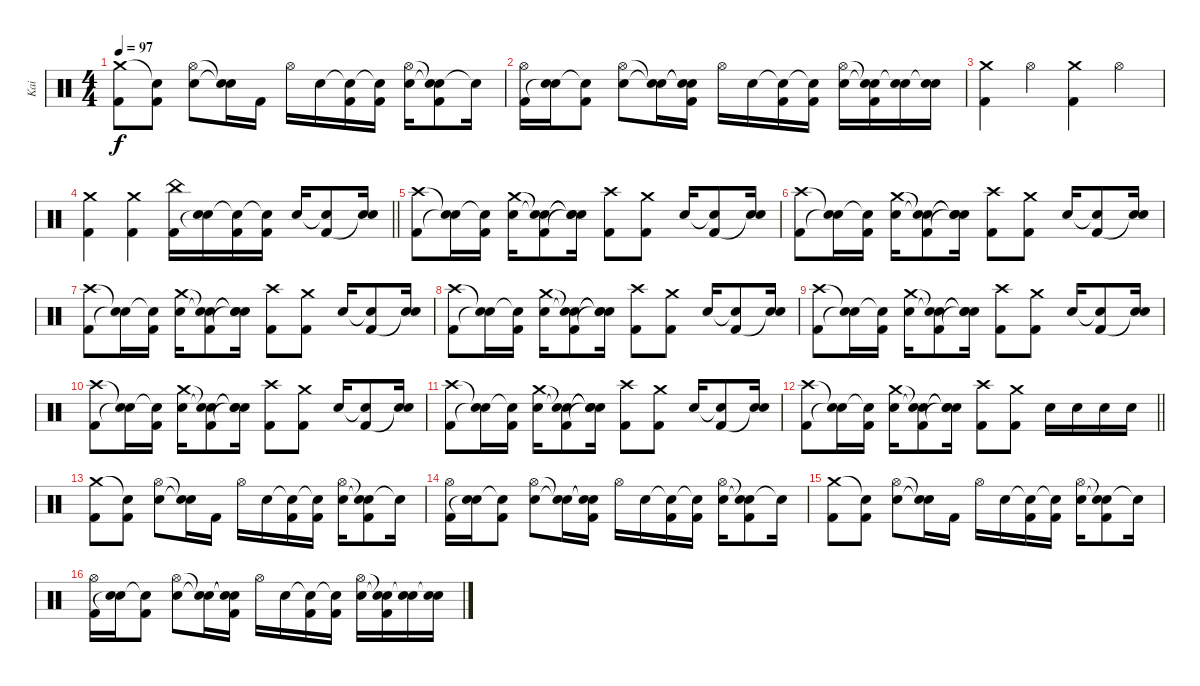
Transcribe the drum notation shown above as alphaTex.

\track ("Kai" "Kai") {instrument percussion}
\staff {score}
\articulation defaults
\ts (4 4)
\tempo 97
\clef neutral
\ks c
("Crash medium (hit)" "Kick (hit) 2").8{dy f} ("Snare (hit)"{t} "Kick (hit) 2").8 ("Hi-Hat (open)" "Snare (hit) 2").8 ("Snare (hit)"{t} "Snare (hit)"{t}).16 "Kick (hit) 2".16 "Hi-Hat (open)".16 "Snare (hit) 2".16 ("Snare (hit)"{t} "Kick (hit) 2").16 ("Snare (hit)"{t} "Kick (hit) 2").16 ("Hi-Hat (open)" "Snare (hit) 2").16 ("Snare (hit)"{t} "Snare (hit)"{t} "Kick (hit) 2").8 "Snare (hit)"{t}.16 |
("Hi-Hat (open)" "Kick (hit) 2").16 ("Snare (hit) 2" "Snare (hit)"{t}).16 ("Snare (hit)"{t} "Kick (hit) 2").8 ("Hi-Hat (open)" "Snare (hit) 2").8 ("Snare (hit)"{t} "Snare (hit)"{t}).16 ("Snare (hit)"{t} "Snare (hit)"{t} "Kick (hit) 2").16 "Hi-Hat (open)".16 "Snare (hit) 2".16 ("Snare (hit)"{t} "Kick (hit) 2").16 ("Snare (hit)"{t} "Kick (hit) 2").16 ("Hi-Hat (open)" "Snare (hit) 2").16 ("Snare (hit)"{t} "Snare (hit)"{t} "Kick (hit) 2").16 ("Snare (hit) 2" "Snare (hit)"{t}).16 ("Snare (hit) 2" "Snare (hit)"{t}).16 |
("Crash medium (hit)" "Kick (hit) 2").4 "Hi-Hat (open)".4 ("Crash medium (hit)" "Kick (hit) 2").4 "Hi-Hat (open)".4 |
\barLineRight lightlight
("Crash medium (hit)" "Kick (hit) 2").4 ("Crash medium (hit)" "Kick (hit) 2").4 ("China (hit)" "Kick (hit) 2").16 ("Snare (hit) 2" "Snare (hit)"{t}).16 ("Snare (hit)"{t} "Kick (hit) 2").16 ("Snare (hit)"{t} "Kick (hit) 2").16 "Snare (hit) 2".16 ("Snare (hit)"{t} "Kick (hit) 2").8 ("Snare (hit) 2" "Snare (hit)"{t}).16 |
("Crash high (hit)" "Kick (hit) 2").8 ("Snare (hit)"{t} "Snare (hit)"{t}).16 ("Snare (hit)"{t} "Kick (hit) 2").16 ("Crash medium (hit)" "Snare (hit) 2").16 ("Snare (hit)"{t} "Snare (hit)"{t} "Kick (hit) 2").8 ("Snare (hit)"{t} "Snare (hit)"{t} "Snare (hit)"{t}).16 ("Crash high (hit)" "Kick (hit) 2").8 ("Crash medium (hit)" "Kick (hit) 2").8 "Snare (hit) 2".16 ("Snare (hit)"{t} "Kick (hit) 2").8 ("Snare (hit) 2" "Snare (hit)"{t}).16 |
("Crash high (hit)" "Kick (hit) 2").8 ("Snare (hit)"{t} "Snare (hit)"{t}).16 ("Snare (hit)"{t} "Kick (hit) 2").16 ("Crash medium (hit)" "Snare (hit) 2").16 ("Snare (hit)"{t} "Snare (hit)"{t} "Kick (hit) 2").8 ("Snare (hit)"{t} "Snare (hit)"{t} "Snare (hit)"{t}).16 ("Crash high (hit)" "Kick (hit) 2").8 ("Crash medium (hit)" "Kick (hit) 2").8 "Snare (hit) 2".16 ("Snare (hit)"{t} "Kick (hit) 2").8 ("Snare (hit) 2" "Snare (hit)"{t}).16 |
("Crash high (hit)" "Kick (hit) 2").8 ("Snare (hit)"{t} "Snare (hit)"{t}).16 ("Snare (hit)"{t} "Kick (hit) 2").16 ("Crash medium (hit)" "Snare (hit) 2").16 ("Snare (hit)"{t} "Snare (hit)"{t} "Kick (hit) 2").8 ("Snare (hit)"{t} "Snare (hit)"{t} "Snare (hit)"{t}).16 ("Crash high (hit)" "Kick (hit) 2").8 ("Crash medium (hit)" "Kick (hit) 2").8 "Snare (hit) 2".16 ("Snare (hit)"{t} "Kick (hit) 2").8 ("Snare (hit) 2" "Snare (hit)"{t}).16 |
("Crash high (hit)" "Kick (hit) 2").8 ("Snare (hit)"{t} "Snare (hit)"{t}).16 ("Snare (hit)"{t} "Kick (hit) 2").16 ("Crash medium (hit)" "Snare (hit) 2").16 ("Snare (hit)"{t} "Snare (hit)"{t} "Kick (hit) 2").8 ("Snare (hit)"{t} "Snare (hit)"{t} "Snare (hit)"{t}).16 ("Crash high (hit)" "Kick (hit) 2").8 ("Crash medium (hit)" "Kick (hit) 2").8 "Snare (hit) 2".16 ("Snare (hit)"{t} "Kick (hit) 2").8 ("Snare (hit) 2" "Snare (hit)"{t}).16 |
("Crash high (hit)" "Kick (hit) 2").8 ("Snare (hit)"{t} "Snare (hit)"{t}).16 ("Snare (hit)"{t} "Kick (hit) 2").16 ("Crash medium (hit)" "Snare (hit) 2").16 ("Snare (hit)"{t} "Snare (hit)"{t} "Kick (hit) 2").8 ("Snare (hit)"{t} "Snare (hit)"{t} "Snare (hit)"{t}).16 ("Crash high (hit)" "Kick (hit) 2").8 ("Crash medium (hit)" "Kick (hit) 2").8 "Snare (hit) 2".16 ("Snare (hit)"{t} "Kick (hit) 2").8 ("Snare (hit) 2" "Snare (hit)"{t}).16 |
("Crash high (hit)" "Kick (hit) 2").8 ("Snare (hit)"{t} "Snare (hit)"{t}).16 ("Snare (hit)"{t} "Kick (hit) 2").16 ("Crash medium (hit)" "Snare (hit) 2").16 ("Snare (hit)"{t} "Snare (hit)"{t} "Kick (hit) 2").8 ("Snare (hit)"{t} "Snare (hit)"{t} "Snare (hit)"{t}).16 ("Crash high (hit)" "Kick (hit) 2").8 ("Crash medium (hit)" "Kick (hit) 2").8 "Snare (hit) 2".16 ("Snare (hit)"{t} "Kick (hit) 2").8 ("Snare (hit) 2" "Snare (hit)"{t}).16 |
("Crash high (hit)" "Kick (hit) 2").8 ("Snare (hit)"{t} "Snare (hit)"{t}).16 ("Snare (hit)"{t} "Kick (hit) 2").16 ("Crash medium (hit)" "Snare (hit) 2").16 ("Snare (hit)"{t} "Snare (hit)"{t} "Kick (hit) 2").8 ("Snare (hit)"{t} "Snare (hit)"{t} "Snare (hit)"{t}).16 ("Crash high (hit)" "Kick (hit) 2").8 ("Crash medium (hit)" "Kick (hit) 2").8 "Snare (hit) 2".16 ("Snare (hit)"{t} "Kick (hit) 2").8 ("Snare (hit) 2" "Snare (hit)"{t}).16 |
\barLineRight lightlight
("Crash high (hit)" "Kick (hit) 2").8 ("Snare (hit)"{t} "Snare (hit)"{t}).16 ("Snare (hit)"{t} "Kick (hit) 2").16 ("Crash medium (hit)" "Snare (hit) 2").16 ("Snare (hit)"{t} "Snare (hit)"{t} "Kick (hit) 2").8 ("Snare (hit)"{t} "Snare (hit)"{t} "Snare (hit)"{t}).16 ("Crash high (hit)" "Kick (hit) 2").8 ("Crash medium (hit)" "Kick (hit) 2").8 "Snare (hit) 2".16 "Snare (hit) 2".16 "Snare (hit) 2".16 "Snare (hit) 2".16 |
("Crash medium (hit)" "Kick (hit) 2").8 ("Snare (hit)"{t} "Kick (hit) 2").8 ("Hi-Hat (open)" "Snare (hit) 2").8 ("Snare (hit)"{t} "Snare (hit)"{t}).16 "Kick (hit) 2".16 "Hi-Hat (open)".16 "Snare (hit) 2".16 ("Snare (hit)"{t} "Kick (hit) 2").16 ("Snare (hit)"{t} "Kick (hit) 2").16 ("Hi-Hat (open)" "Snare (hit) 2").16 ("Snare (hit)"{t} "Snare (hit)"{t} "Kick (hit) 2").8 "Snare (hit)"{t}.16 |
("Hi-Hat (open)" "Kick (hit) 2").16 ("Snare (hit) 2" "Snare (hit)"{t}).16 ("Snare (hit)"{t} "Kick (hit) 2").8 ("Hi-Hat (open)" "Snare (hit) 2").8 ("Snare (hit)"{t} "Snare (hit)"{t}).16 ("Snare (hit)"{t} "Snare (hit)"{t} "Kick (hit) 2").16 "Hi-Hat (open)".16 "Snare (hit) 2".16 ("Snare (hit)"{t} "Kick (hit) 2").16 ("Snare (hit)"{t} "Kick (hit) 2").16 ("Hi-Hat (open)" "Snare (hit) 2").16 ("Snare (hit)"{t} "Snare (hit)"{t} "Kick (hit) 2").8 "Snare (hit)"{t}.16 |
("Crash medium (hit)" "Kick (hit) 2").8 ("Snare (hit)"{t} "Kick (hit) 2").8 ("Hi-Hat (open)" "Snare (hit) 2").8 ("Snare (hit)"{t} "Snare (hit)"{t}).16 "Kick (hit) 2".16 "Hi-Hat (open)".16 "Snare (hit) 2".16 ("Snare (hit)"{t} "Kick (hit) 2").16 ("Snare (hit)"{t} "Kick (hit) 2").16 ("Hi-Hat (open)" "Snare (hit) 2").16 ("Snare (hit)"{t} "Snare (hit)"{t} "Kick (hit) 2").8 "Snare (hit)"{t}.16 |
("Hi-Hat (open)" "Kick (hit) 2").16 ("Snare (hit) 2" "Snare (hit)"{t}).16 ("Snare (hit)"{t} "Kick (hit) 2").8 ("Hi-Hat (open)" "Snare (hit) 2").8 ("Snare (hit)"{t} "Snare (hit)"{t}).16 ("Snare (hit)"{t} "Snare (hit)"{t} "Kick (hit) 2").16 "Hi-Hat (open)".16 "Snare (hit) 2".16 ("Snare (hit)"{t} "Kick (hit) 2").16 ("Snare (hit)"{t} "Kick (hit) 2").16 ("Hi-Hat (open)" "Snare (hit) 2").16 ("Snare (hit)"{t} "Snare (hit)"{t} "Kick (hit) 2").16 ("Snare (hit) 2" "Snare (hit)"{t}).16 ("Snare (hit) 2" "Snare (hit)"{t}).16
